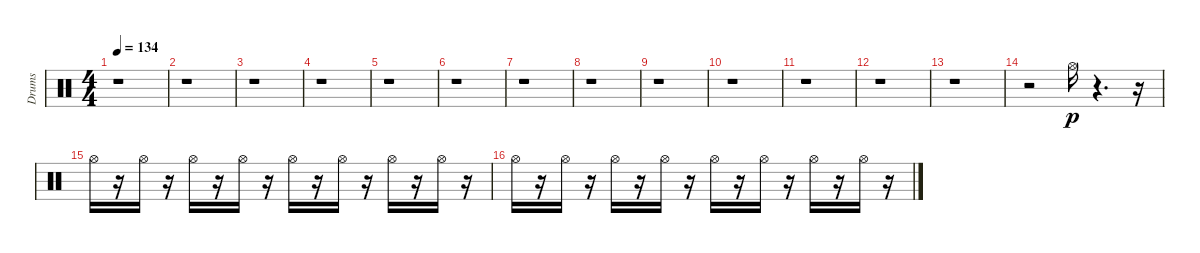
\track ("Drums" "Drums") {instrument percussion}
\staff {score}
\articulation defaults
\ts (4 4)
\tempo 134
\clef neutral
\ks c
r.1{dy p} |
r.1 |
r.1 |
r.1 |
r.1 |
r.1 |
r.1 |
r.1 |
r.1 |
r.1 |
r.1 |
r.1 |
r.1 |
r.2 "Hi-Hat (open)".16 r.4{d} r.16 |
"Hi-Hat (open)".16 r.16 "Hi-Hat (open)".16 r.16 "Hi-Hat (open)".16 r.16 "Hi-Hat (open)".16 r.16 "Hi-Hat (open)".16 r.16 "Hi-Hat (open)".16 r.16 "Hi-Hat (open)".16 r.16 "Hi-Hat (open)".16 r.16 |
"Hi-Hat (open)".16 r.16 "Hi-Hat (open)".16 r.16 "Hi-Hat (open)".16 r.16 "Hi-Hat (open)".16 r.16 "Hi-Hat (open)".16 r.16 "Hi-Hat (open)".16 r.16 "Hi-Hat (open)".16 r.16 "Hi-Hat (open)".16 r.16
